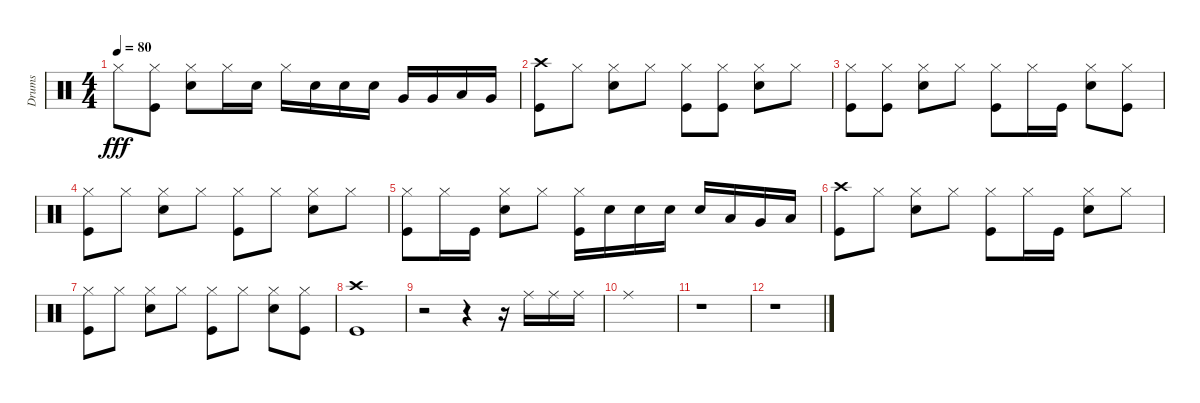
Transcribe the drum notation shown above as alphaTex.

\track ("Drums" "Drums") {instrument percussion}
\staff {score}
\articulation defaults
\ts (4 4)
\tempo 80
\clef neutral
\ks c "Hi-Hat (closed)".8{dy fff}
("Hi-Hat (closed)" "Kick (hit)").8 ("Hi-Hat (closed)" "Snare (hit) 2").8 "Hi-Hat (closed)".16 "Snare (hit) 2".16 "Hi-Hat (closed)".16 "Snare (hit) 2".16 "Snare (hit) 2".16 "Snare (hit) 2".16 "Very Low Tom (hit)".16 "Very Low Tom (hit)".16 "Low Tom (hit)".16 "Very Low Tom (hit)".16 |
("Crash high (hit)" "Kick (hit)").8 "Hi-Hat (closed)".8 ("Hi-Hat (closed)" "Snare (hit) 2").8 "Hi-Hat (closed)".8 ("Hi-Hat (closed)" "Kick (hit)").8 ("Hi-Hat (closed)" "Kick (hit)").8 ("Hi-Hat (closed)" "Snare (hit) 2").8 "Hi-Hat (closed)".8 |
("Hi-Hat (closed)" "Kick (hit)").8 ("Hi-Hat (closed)" "Kick (hit)").8 ("Hi-Hat (closed)" "Snare (hit) 2").8 "Hi-Hat (closed)".8 ("Hi-Hat (closed)" "Kick (hit)").8 "Hi-Hat (closed)".16 "Kick (hit)".16 ("Hi-Hat (closed)" "Snare (hit) 2").8 ("Hi-Hat (closed)" "Kick (hit)").8 |
("Hi-Hat (closed)" "Kick (hit)").8 "Hi-Hat (closed)".8 ("Hi-Hat (closed)" "Snare (hit) 2").8 "Hi-Hat (closed)".8 ("Hi-Hat (closed)" "Kick (hit)").8 "Hi-Hat (closed)".8 ("Hi-Hat (closed)" "Snare (hit) 2").8 "Hi-Hat (closed)".8 |
("Hi-Hat (closed)" "Kick (hit)").8 "Hi-Hat (closed)".16 "Kick (hit)".16 ("Hi-Hat (closed)" "Snare (hit) 2").8 "Hi-Hat (closed)".8 ("Hi-Hat (closed)" "Kick (hit)").16 "Snare (hit) 2".16 "Snare (hit) 2".16 "Snare (hit) 2".16 "Snare (hit) 2".16 "Low Tom (hit)".16 "Very Low Tom (hit)".16 "Low Tom (hit)".16 |
("Crash high (hit)" "Kick (hit)").8 "Hi-Hat (closed)".8 ("Hi-Hat (closed)" "Snare (hit) 2").8 "Hi-Hat (closed)".8 ("Hi-Hat (closed)" "Kick (hit)").8 "Hi-Hat (closed)".16 "Kick (hit)".16 ("Hi-Hat (closed)" "Snare (hit) 2").8 "Hi-Hat (closed)".8 |
("Hi-Hat (closed)" "Kick (hit)").8 "Hi-Hat (closed)".8 ("Hi-Hat (closed)" "Snare (hit) 2").8 "Hi-Hat (closed)".8 ("Hi-Hat (closed)" "Kick (hit)").8 "Hi-Hat (closed)".8 ("Hi-Hat (closed)" "Snare (hit) 2").8 ("Hi-Hat (closed)" "Kick (hit)").8 |
("Crash high (hit)" "Kick (hit)").1 |
r.2 r.4 r.16 "Ride (middle)".16 "Ride (middle)".16 "Ride (middle)".16 |
"Ride (middle)".1 |
r.1 |
r.1
